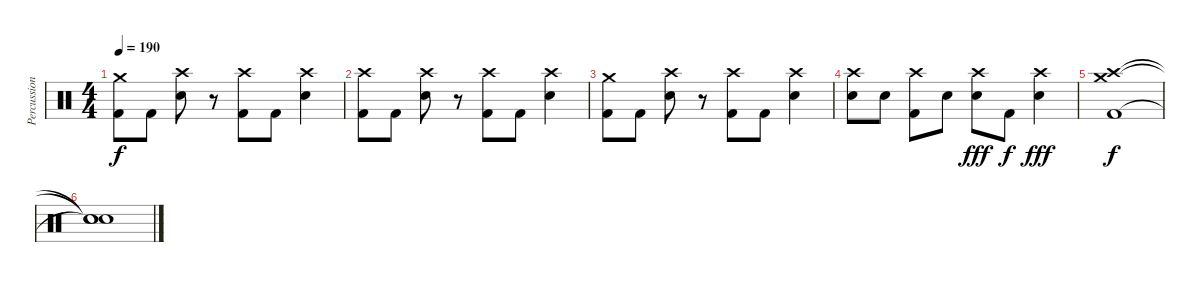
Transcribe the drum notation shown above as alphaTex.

\track ("Percussions" "Percussion") {instrument percussion}
\staff {score}
\articulation defaults
\ts (4 4)
\tempo 190
\clef neutral
\ks c
("Crash medium (hit)" "Kick (hit) 2").8{dy f} "Kick (hit) 2".8 ("Crash high (hit)" "Electric Snare (hit)").8 r.8 ("Crash high (hit)" "Kick (hit) 2").8 "Kick (hit) 2".8 ("Crash high (hit)" "Electric Snare (hit)").4 |
("Crash high (hit)" "Kick (hit) 2").8 "Kick (hit) 2".8 ("Crash high (hit)" "Electric Snare (hit)").8 r.8 ("Crash high (hit)" "Kick (hit) 2").8 "Kick (hit) 2".8 ("Crash high (hit)" "Electric Snare (hit)").4 |
("Crash medium (hit)" "Kick (hit) 2").8 "Kick (hit) 2".8 ("Crash high (hit)" "Electric Snare (hit)").8 r.8 ("Crash high (hit)" "Kick (hit) 2").8 "Kick (hit) 2".8 ("Crash high (hit)" "Electric Snare (hit)").4 |
("Crash high (hit)" "Electric Snare (hit)").8 "Electric Snare (hit)".8 ("Crash high (hit)" "Kick (hit) 2").8 "Electric Snare (hit)".8 ("Crash high (hit)" "Electric Snare (hit)").8{dy fff} "Kick (hit) 2".8{dy f} ("Crash high (hit)" "Electric Snare (hit)").4{dy fff} |
("Crash high (hit)" "Crash medium (hit)" "Kick (hit) 2").1{dy f} |
("Snare (hit)"{t} "Snare (hit)"{t} "Snare (hit)"{t}).1
